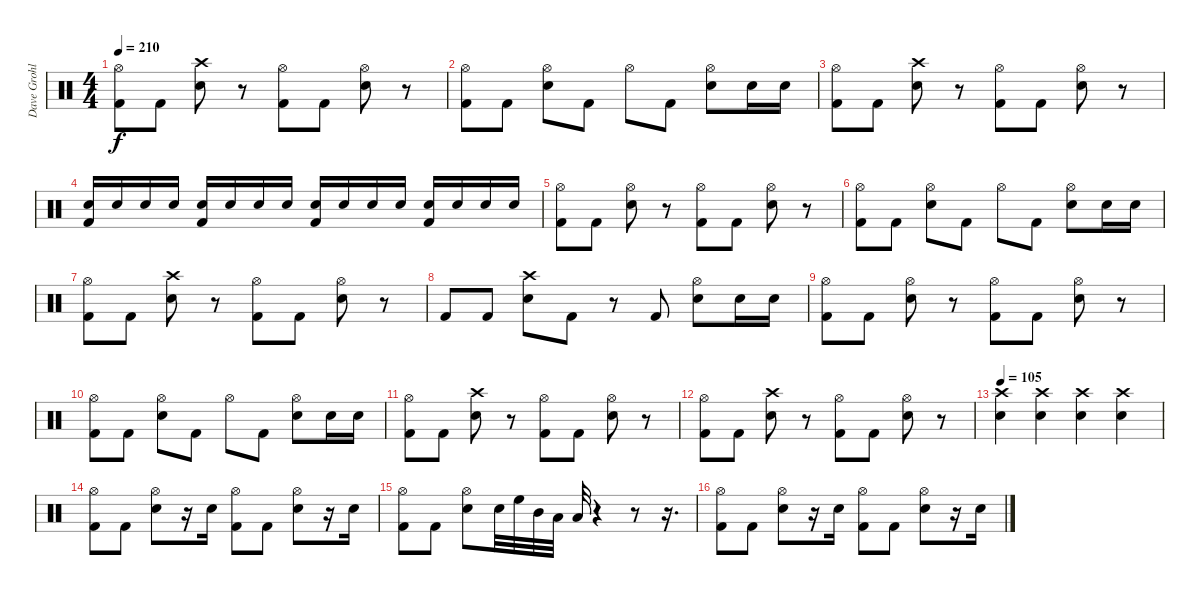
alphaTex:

\track ("Dave Grohl" "Dave Grohl") {instrument percussion}
\staff {score}
\articulation defaults
\ts (4 4)
\tempo 210
\clef neutral
\ks c
("Hi-Hat (open)" "Kick (hit) 2").8{dy f} "Kick (hit) 2".8 ("Crash high (hit)" "Snare (hit) 2").8 r.8 ("Hi-Hat (open)" "Kick (hit) 2").8 "Kick (hit) 2".8 ("Hi-Hat (open)" "Snare (hit) 2").8 r.8 |
("Hi-Hat (open)" "Kick (hit) 2").8 "Kick (hit) 2".8 ("Hi-Hat (open)" "Snare (hit) 2").8 "Kick (hit) 2".8 "Hi-Hat (open)".8 "Kick (hit) 2".8 ("Hi-Hat (open)" "Snare (hit) 2").8 "Snare (hit) 2".16 "Snare (hit) 2".16 |
("Hi-Hat (open)" "Kick (hit) 2").8 "Kick (hit) 2".8 ("Crash high (hit)" "Snare (hit) 2").8 r.8 ("Hi-Hat (open)" "Kick (hit) 2").8 "Kick (hit) 2".8 ("Hi-Hat (open)" "Snare (hit) 2").8 r.8 |
("Kick (hit) 2" "Snare (hit) 2").16 "Snare (hit) 2".16 "Snare (hit) 2".16 "Snare (hit) 2".16 ("Kick (hit) 2" "Snare (hit) 2").16 "Snare (hit) 2".16 "Snare (hit) 2".16 "Snare (hit) 2".16 ("Kick (hit) 2" "Snare (hit) 2").16 "Snare (hit) 2".16 "Snare (hit) 2".16 "Snare (hit) 2".16 ("Kick (hit) 2" "Snare (hit) 2").16 "Snare (hit) 2".16 "Snare (hit) 2".16 "Snare (hit) 2".16 |
("Hi-Hat (open)" "Kick (hit) 2").8 "Kick (hit) 2".8 ("Hi-Hat (open)" "Snare (hit) 2").8 r.8 ("Hi-Hat (open)" "Kick (hit) 2").8 "Kick (hit) 2".8 ("Hi-Hat (open)" "Snare (hit) 2").8 r.8 |
("Hi-Hat (open)" "Kick (hit) 2").8 "Kick (hit) 2".8 ("Hi-Hat (open)" "Snare (hit) 2").8 "Kick (hit) 2".8 "Hi-Hat (open)".8 "Kick (hit) 2".8 ("Hi-Hat (open)" "Snare (hit) 2").8 "Snare (hit) 2".16 "Snare (hit) 2".16 |
("Hi-Hat (open)" "Kick (hit) 2").8 "Kick (hit) 2".8 ("Crash high (hit)" "Snare (hit) 2").8 r.8 ("Hi-Hat (open)" "Kick (hit) 2").8 "Kick (hit) 2".8 ("Hi-Hat (open)" "Snare (hit) 2").8 r.8 |
"Kick (hit) 2".8 "Kick (hit) 2".8 ("Crash high (hit)" "Snare (hit) 2").8 "Kick (hit) 2".8 r.8 "Kick (hit) 2".8 ("Hi-Hat (open)" "Snare (hit) 2").8 "Snare (hit) 2".16 "Snare (hit) 2".16 |
("Hi-Hat (open)" "Kick (hit) 2").8 "Kick (hit) 2".8 ("Hi-Hat (open)" "Snare (hit) 2").8 r.8 ("Hi-Hat (open)" "Kick (hit) 2").8 "Kick (hit) 2".8 ("Hi-Hat (open)" "Snare (hit) 2").8 r.8 |
("Hi-Hat (open)" "Kick (hit) 2").8 "Kick (hit) 2".8 ("Hi-Hat (open)" "Snare (hit) 2").8 "Kick (hit) 2".8 "Hi-Hat (open)".8 "Kick (hit) 2".8 ("Hi-Hat (open)" "Snare (hit) 2").8 "Snare (hit) 2".16 "Snare (hit) 2".16 |
("Hi-Hat (open)" "Kick (hit) 2").8 "Kick (hit) 2".8 ("Crash high (hit)" "Snare (hit) 2").8 r.8 ("Hi-Hat (open)" "Kick (hit) 2").8 "Kick (hit) 2".8 ("Hi-Hat (open)" "Snare (hit) 2").8 r.8 |
("Hi-Hat (open)" "Kick (hit) 2").8 "Kick (hit) 2".8 ("Crash high (hit)" "Snare (hit) 2").8 r.8 ("Hi-Hat (open)" "Kick (hit) 2").8 "Kick (hit) 2".8 ("Hi-Hat (open)" "Snare (hit) 2").8 r.8 |
\tempo 105
("Crash high (hit)" "Snare (hit) 2").4 ("Snare (hit) 2" "Crash high (hit)").4 ("Snare (hit) 2" "Crash high (hit)").4 ("Crash high (hit)" "Snare (hit) 2").4 |
("Hi-Hat (open)" "Kick (hit) 2").8 "Kick (hit) 2".8 ("Hi-Hat (open)" "Snare (hit) 2").8 r.16 "Snare (hit) 2".16 ("Hi-Hat (open)" "Kick (hit) 2").8 "Kick (hit) 2".8 ("Hi-Hat (open)" "Snare (hit) 2").8 r.16 "Snare (hit) 2".16 |
("Hi-Hat (open)" "Kick (hit) 2").8 "Kick (hit) 2".8 ("Hi-Hat (open)" "Snare (hit) 2").8 "Snare (hit) 2".32 "High Floor Tom (hit)".32 "Mid Tom (hit)".32 "Low Tom (hit)".32 "Low Floor Tom (hit)".32 r.4 r.8 r.16{d} |
("Hi-Hat (open)" "Kick (hit) 2").8 "Kick (hit) 2".8 ("Hi-Hat (open)" "Snare (hit) 2").8 r.16 "Snare (hit) 2".16 ("Hi-Hat (open)" "Kick (hit) 2").8 "Kick (hit) 2".8 ("Hi-Hat (open)" "Snare (hit) 2").8 r.16 "Snare (hit) 2".16
